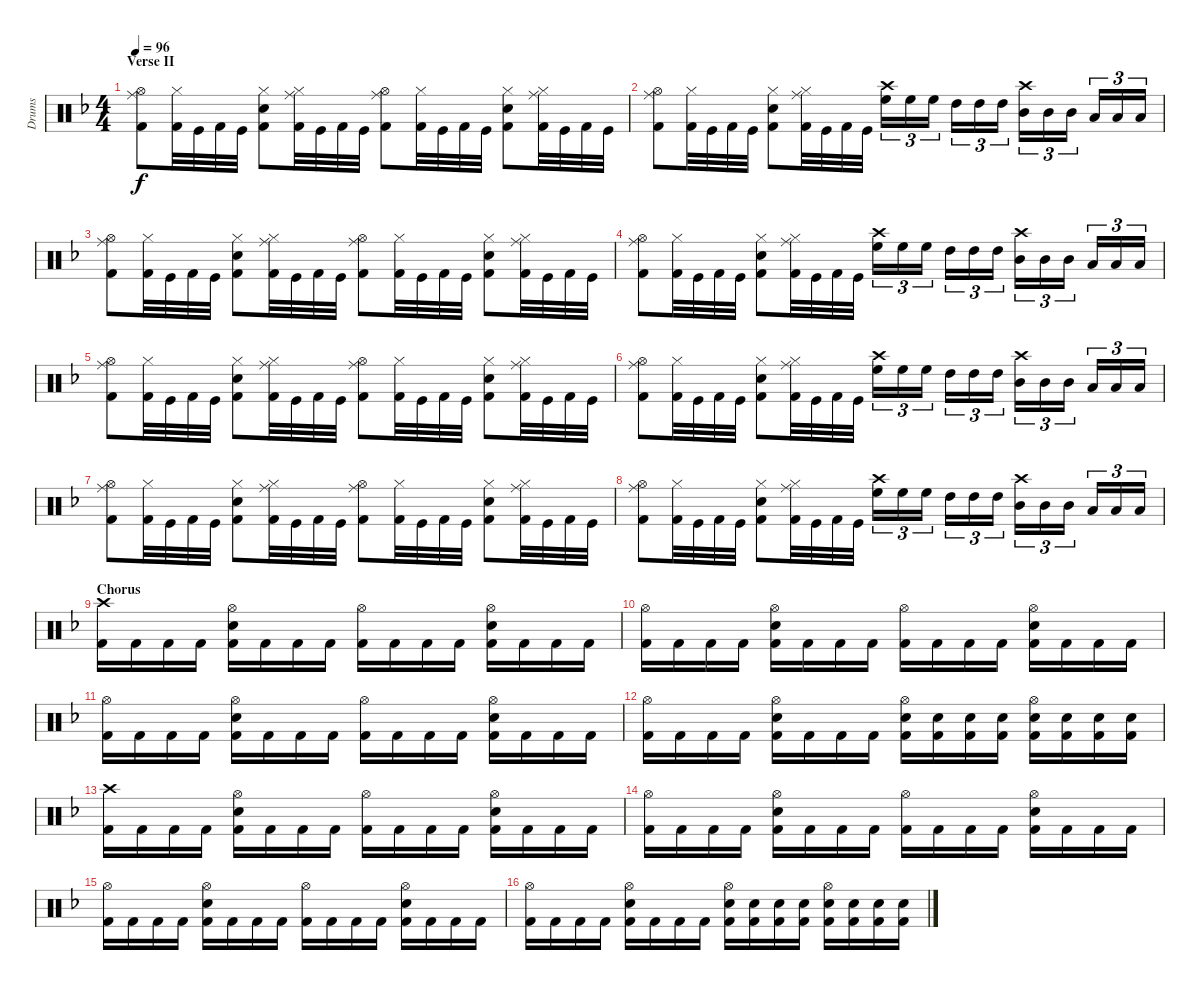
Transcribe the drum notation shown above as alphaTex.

\track ("Drums" "Drums") {instrument percussion}
\staff {score}
\articulation defaults
\ts (4 4)
\section ("" "Verse II")
\tempo 96
\clef neutral
\ks dminor
("Hi-Hat (open)" "Ride (middle)" "Kick (hit) 2").8{dy f} ("Hi-Hat (closed)" "Kick (hit) 2").32 "Kick (hit)".32 "Kick (hit) 2".32 "Kick (hit)".32 ("Hi-Hat (closed)" "Snare (hit) 2" "Kick (hit) 2").8 ("Hi-Hat (closed)" "Ride (middle)" "Kick (hit) 2").32 "Kick (hit)".32 "Kick (hit) 2".32 "Kick (hit)".32 ("Hi-Hat (open)" "Ride (middle)" "Kick (hit) 2").8 ("Hi-Hat (closed)" "Kick (hit) 2").32 "Kick (hit)".32 "Kick (hit) 2".32 "Kick (hit)".32 ("Hi-Hat (closed)" "Snare (hit) 2" "Kick (hit) 2").8 ("Hi-Hat (closed)" "Ride (middle)" "Kick (hit) 2").32 "Kick (hit)".32 "Kick (hit) 2".32 "Kick (hit)".32 |
("Hi-Hat (open)" "Ride (middle)" "Kick (hit) 2").8 ("Hi-Hat (closed)" "Kick (hit) 2").32 "Kick (hit)".32 "Kick (hit) 2".32 "Kick (hit)".32 ("Hi-Hat (closed)" "Snare (hit) 2" "Kick (hit) 2").8 ("Hi-Hat (closed)" "Ride (middle)" "Kick (hit) 2").32 "Kick (hit)".32 "Kick (hit) 2".32 "Kick (hit)".32 ("Crash high (hit)" "High Floor Tom (hit)").16{tu (3 2)} "High Floor Tom (hit)".16{tu (3 2)} "High Floor Tom (hit)".16{tu (3 2)} "High Tom (hit)".16{tu (3 2)} "High Tom (hit)".16{tu (3 2)} "High Tom (hit)".16{tu (3 2)} ("Crash high (hit)" "Mid Tom (hit)").16{tu (3 2)} "Mid Tom (hit)".16{tu (3 2)} "Mid Tom (hit)".16{tu (3 2)} "Low Tom (hit)".16{tu (3 2)} "Low Tom (hit)".16{tu (3 2)} "Low Tom (hit)".16{tu (3 2)} |
("Hi-Hat (open)" "Ride (middle)" "Kick (hit) 2").8 ("Hi-Hat (closed)" "Kick (hit) 2").32 "Kick (hit)".32 "Kick (hit) 2".32 "Kick (hit)".32 ("Hi-Hat (closed)" "Snare (hit) 2" "Kick (hit) 2").8 ("Hi-Hat (closed)" "Ride (middle)" "Kick (hit) 2").32 "Kick (hit)".32 "Kick (hit) 2".32 "Kick (hit)".32 ("Hi-Hat (open)" "Ride (middle)" "Kick (hit) 2").8 ("Hi-Hat (closed)" "Kick (hit) 2").32 "Kick (hit)".32 "Kick (hit) 2".32 "Kick (hit)".32 ("Hi-Hat (closed)" "Snare (hit) 2" "Kick (hit) 2").8 ("Hi-Hat (closed)" "Ride (middle)" "Kick (hit) 2").32 "Kick (hit)".32 "Kick (hit) 2".32 "Kick (hit)".32 |
("Hi-Hat (open)" "Ride (middle)" "Kick (hit) 2").8 ("Hi-Hat (closed)" "Kick (hit) 2").32 "Kick (hit)".32 "Kick (hit) 2".32 "Kick (hit)".32 ("Hi-Hat (closed)" "Snare (hit) 2" "Kick (hit) 2").8 ("Hi-Hat (closed)" "Ride (middle)" "Kick (hit) 2").32 "Kick (hit)".32 "Kick (hit) 2".32 "Kick (hit)".32 ("Crash high (hit)" "High Floor Tom (hit)").16{tu (3 2)} "High Floor Tom (hit)".16{tu (3 2)} "High Floor Tom (hit)".16{tu (3 2)} "High Tom (hit)".16{tu (3 2)} "High Tom (hit)".16{tu (3 2)} "High Tom (hit)".16{tu (3 2)} ("Crash high (hit)" "Mid Tom (hit)").16{tu (3 2)} "Mid Tom (hit)".16{tu (3 2)} "Mid Tom (hit)".16{tu (3 2)} "Low Tom (hit)".16{tu (3 2)} "Low Tom (hit)".16{tu (3 2)} "Low Tom (hit)".16{tu (3 2)} |
("Hi-Hat (open)" "Ride (middle)" "Kick (hit) 2").8 ("Hi-Hat (closed)" "Kick (hit) 2").32 "Kick (hit)".32 "Kick (hit) 2".32 "Kick (hit)".32 ("Hi-Hat (closed)" "Snare (hit) 2" "Kick (hit) 2").8 ("Hi-Hat (closed)" "Ride (middle)" "Kick (hit) 2").32 "Kick (hit)".32 "Kick (hit) 2".32 "Kick (hit)".32 ("Hi-Hat (open)" "Ride (middle)" "Kick (hit) 2").8 ("Hi-Hat (closed)" "Kick (hit) 2").32 "Kick (hit)".32 "Kick (hit) 2".32 "Kick (hit)".32 ("Hi-Hat (closed)" "Snare (hit) 2" "Kick (hit) 2").8 ("Hi-Hat (closed)" "Ride (middle)" "Kick (hit) 2").32 "Kick (hit)".32 "Kick (hit) 2".32 "Kick (hit)".32 |
("Hi-Hat (open)" "Ride (middle)" "Kick (hit) 2").8 ("Hi-Hat (closed)" "Kick (hit) 2").32 "Kick (hit)".32 "Kick (hit) 2".32 "Kick (hit)".32 ("Hi-Hat (closed)" "Snare (hit) 2" "Kick (hit) 2").8 ("Hi-Hat (closed)" "Ride (middle)" "Kick (hit) 2").32 "Kick (hit)".32 "Kick (hit) 2".32 "Kick (hit)".32 ("Crash high (hit)" "High Floor Tom (hit)").16{tu (3 2)} "High Floor Tom (hit)".16{tu (3 2)} "High Floor Tom (hit)".16{tu (3 2)} "High Tom (hit)".16{tu (3 2)} "High Tom (hit)".16{tu (3 2)} "High Tom (hit)".16{tu (3 2)} ("Crash high (hit)" "Mid Tom (hit)").16{tu (3 2)} "Mid Tom (hit)".16{tu (3 2)} "Mid Tom (hit)".16{tu (3 2)} "Low Tom (hit)".16{tu (3 2)} "Low Tom (hit)".16{tu (3 2)} "Low Tom (hit)".16{tu (3 2)} |
("Hi-Hat (open)" "Ride (middle)" "Kick (hit) 2").8 ("Hi-Hat (closed)" "Kick (hit) 2").32 "Kick (hit)".32 "Kick (hit) 2".32 "Kick (hit)".32 ("Hi-Hat (closed)" "Snare (hit) 2" "Kick (hit) 2").8 ("Hi-Hat (closed)" "Ride (middle)" "Kick (hit) 2").32 "Kick (hit)".32 "Kick (hit) 2".32 "Kick (hit)".32 ("Hi-Hat (open)" "Ride (middle)" "Kick (hit) 2").8 ("Hi-Hat (closed)" "Kick (hit) 2").32 "Kick (hit)".32 "Kick (hit) 2".32 "Kick (hit)".32 ("Hi-Hat (closed)" "Snare (hit) 2" "Kick (hit) 2").8 ("Hi-Hat (closed)" "Ride (middle)" "Kick (hit) 2").32 "Kick (hit)".32 "Kick (hit) 2".32 "Kick (hit)".32 |
("Hi-Hat (open)" "Ride (middle)" "Kick (hit) 2").8 ("Hi-Hat (closed)" "Kick (hit) 2").32 "Kick (hit)".32 "Kick (hit) 2".32 "Kick (hit)".32 ("Hi-Hat (closed)" "Snare (hit) 2" "Kick (hit) 2").8 ("Hi-Hat (closed)" "Ride (middle)" "Kick (hit) 2").32 "Kick (hit)".32 "Kick (hit) 2".32 "Kick (hit)".32 ("Crash high (hit)" "High Floor Tom (hit)").16{tu (3 2)} "High Floor Tom (hit)".16{tu (3 2)} "High Floor Tom (hit)".16{tu (3 2)} "High Tom (hit)".16{tu (3 2)} "High Tom (hit)".16{tu (3 2)} "High Tom (hit)".16{tu (3 2)} ("Crash high (hit)" "Mid Tom (hit)").16{tu (3 2)} "Mid Tom (hit)".16{tu (3 2)} "Mid Tom (hit)".16{tu (3 2)} "Low Tom (hit)".16{tu (3 2)} "Low Tom (hit)".16{tu (3 2)} "Low Tom (hit)".16{tu (3 2)} |
\section ("" "Chorus")
("Crash high (hit)" "Kick (hit) 2").16 "Kick (hit) 2".16 "Kick (hit) 2".16 "Kick (hit) 2".16 ("Hi-Hat (open)" "Snare (hit) 2" "Kick (hit) 2").16 "Kick (hit) 2".16 "Kick (hit) 2".16 "Kick (hit) 2".16 ("Hi-Hat (open)" "Kick (hit) 2").16 "Kick (hit) 2".16 "Kick (hit) 2".16 "Kick (hit) 2".16 ("Hi-Hat (open)" "Snare (hit) 2" "Kick (hit) 2").16 "Kick (hit) 2".16 "Kick (hit) 2".16 "Kick (hit) 2".16 |
("Hi-Hat (open)" "Kick (hit) 2").16 "Kick (hit) 2".16 "Kick (hit) 2".16 "Kick (hit) 2".16 ("Hi-Hat (open)" "Snare (hit) 2" "Kick (hit) 2").16 "Kick (hit) 2".16 "Kick (hit) 2".16 "Kick (hit) 2".16 ("Hi-Hat (open)" "Kick (hit) 2").16 "Kick (hit) 2".16 "Kick (hit) 2".16 "Kick (hit) 2".16 ("Hi-Hat (open)" "Snare (hit) 2" "Kick (hit) 2").16 "Kick (hit) 2".16 "Kick (hit) 2".16 "Kick (hit) 2".16 |
("Hi-Hat (open)" "Kick (hit) 2").16 "Kick (hit) 2".16 "Kick (hit) 2".16 "Kick (hit) 2".16 ("Hi-Hat (open)" "Snare (hit) 2" "Kick (hit) 2").16 "Kick (hit) 2".16 "Kick (hit) 2".16 "Kick (hit) 2".16 ("Hi-Hat (open)" "Kick (hit) 2").16 "Kick (hit) 2".16 "Kick (hit) 2".16 "Kick (hit) 2".16 ("Hi-Hat (open)" "Snare (hit) 2" "Kick (hit) 2").16 "Kick (hit) 2".16 "Kick (hit) 2".16 "Kick (hit) 2".16 |
("Hi-Hat (open)" "Kick (hit) 2").16 "Kick (hit) 2".16 "Kick (hit) 2".16 "Kick (hit) 2".16 ("Hi-Hat (open)" "Snare (hit) 2" "Kick (hit) 2").16 "Kick (hit) 2".16 "Kick (hit) 2".16 "Kick (hit) 2".16 ("Hi-Hat (open)" "Snare (hit) 2" "Kick (hit) 2").16 ("Snare (hit) 2" "Kick (hit) 2").16 ("Snare (hit) 2" "Kick (hit) 2").16 ("Snare (hit) 2" "Kick (hit) 2").16 ("Hi-Hat (open)" "Snare (hit) 2" "Kick (hit) 2").16 ("Snare (hit) 2" "Kick (hit) 2").16 ("Snare (hit) 2" "Kick (hit) 2").16 ("Snare (hit) 2" "Kick (hit) 2").16 |
("Crash high (hit)" "Kick (hit) 2").16 "Kick (hit) 2".16 "Kick (hit) 2".16 "Kick (hit) 2".16 ("Hi-Hat (open)" "Snare (hit) 2" "Kick (hit) 2").16 "Kick (hit) 2".16 "Kick (hit) 2".16 "Kick (hit) 2".16 ("Hi-Hat (open)" "Kick (hit) 2").16 "Kick (hit) 2".16 "Kick (hit) 2".16 "Kick (hit) 2".16 ("Hi-Hat (open)" "Snare (hit) 2" "Kick (hit) 2").16 "Kick (hit) 2".16 "Kick (hit) 2".16 "Kick (hit) 2".16 |
("Hi-Hat (open)" "Kick (hit) 2").16 "Kick (hit) 2".16 "Kick (hit) 2".16 "Kick (hit) 2".16 ("Hi-Hat (open)" "Snare (hit) 2" "Kick (hit) 2").16 "Kick (hit) 2".16 "Kick (hit) 2".16 "Kick (hit) 2".16 ("Hi-Hat (open)" "Kick (hit) 2").16 "Kick (hit) 2".16 "Kick (hit) 2".16 "Kick (hit) 2".16 ("Hi-Hat (open)" "Snare (hit) 2" "Kick (hit) 2").16 "Kick (hit) 2".16 "Kick (hit) 2".16 "Kick (hit) 2".16 |
("Hi-Hat (open)" "Kick (hit) 2").16 "Kick (hit) 2".16 "Kick (hit) 2".16 "Kick (hit) 2".16 ("Hi-Hat (open)" "Snare (hit) 2" "Kick (hit) 2").16 "Kick (hit) 2".16 "Kick (hit) 2".16 "Kick (hit) 2".16 ("Hi-Hat (open)" "Kick (hit) 2").16 "Kick (hit) 2".16 "Kick (hit) 2".16 "Kick (hit) 2".16 ("Hi-Hat (open)" "Snare (hit) 2" "Kick (hit) 2").16 "Kick (hit) 2".16 "Kick (hit) 2".16 "Kick (hit) 2".16 |
("Hi-Hat (open)" "Kick (hit) 2").16 "Kick (hit) 2".16 "Kick (hit) 2".16 "Kick (hit) 2".16 ("Hi-Hat (open)" "Snare (hit) 2" "Kick (hit) 2").16 "Kick (hit) 2".16 "Kick (hit) 2".16 "Kick (hit) 2".16 ("Hi-Hat (open)" "Snare (hit) 2" "Kick (hit) 2").16 ("Snare (hit) 2" "Kick (hit) 2").16 ("Snare (hit) 2" "Kick (hit) 2").16 ("Snare (hit) 2" "Kick (hit) 2").16 ("Hi-Hat (open)" "Snare (hit) 2" "Kick (hit) 2").16 ("Snare (hit) 2" "Kick (hit) 2").16 ("Snare (hit) 2" "Kick (hit) 2").16 ("Snare (hit) 2" "Kick (hit) 2").16
